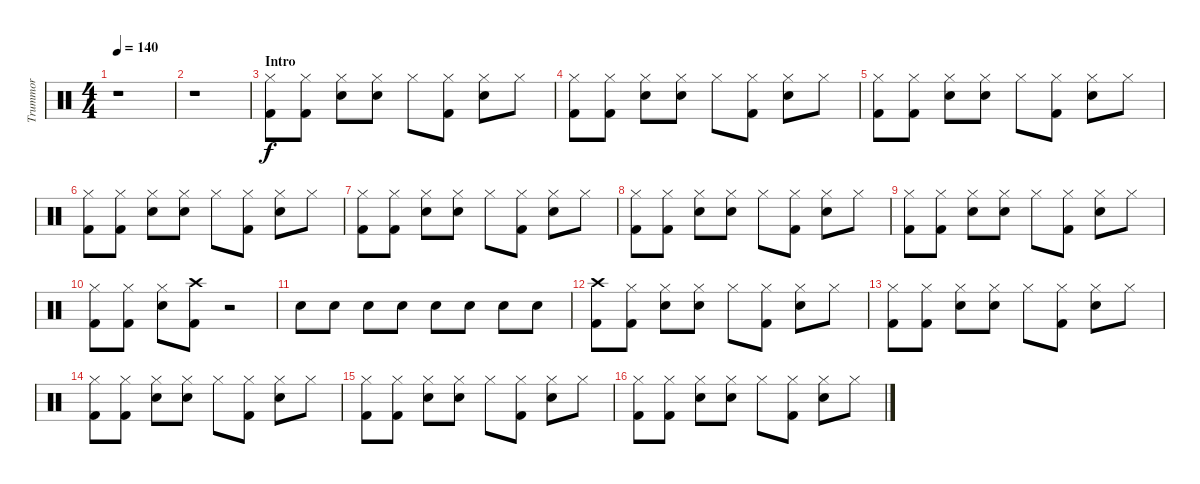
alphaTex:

\track ("Trummor" "Trummor") {instrument percussion}
\staff {score}
\articulation defaults
\ts (4 4)
\tempo 140
\clef neutral
\ks c
r.1{dy f} |
r.1 |
\section ("" "Intro")
("Hi-Hat (closed)" "Kick (hit) 2").8 ("Hi-Hat (closed)" "Kick (hit) 2").8 ("Hi-Hat (closed)" "Electric Snare (hit)").8 ("Hi-Hat (closed)" "Electric Snare (hit)").8 "Hi-Hat (closed)".8 ("Hi-Hat (closed)" "Kick (hit) 2").8 ("Hi-Hat (closed)" "Electric Snare (hit)").8 "Hi-Hat (closed)".8 |
("Hi-Hat (closed)" "Kick (hit) 2").8 ("Hi-Hat (closed)" "Kick (hit) 2").8 ("Hi-Hat (closed)" "Electric Snare (hit)").8 ("Hi-Hat (closed)" "Electric Snare (hit)").8 "Hi-Hat (closed)".8 ("Hi-Hat (closed)" "Kick (hit) 2").8 ("Hi-Hat (closed)" "Electric Snare (hit)").8 "Hi-Hat (closed)".8 |
("Hi-Hat (closed)" "Kick (hit) 2").8 ("Hi-Hat (closed)" "Kick (hit) 2").8 ("Hi-Hat (closed)" "Electric Snare (hit)").8 ("Hi-Hat (closed)" "Electric Snare (hit)").8 "Hi-Hat (closed)".8 ("Hi-Hat (closed)" "Kick (hit) 2").8 ("Hi-Hat (closed)" "Electric Snare (hit)").8 "Hi-Hat (closed)".8 |
("Hi-Hat (closed)" "Kick (hit) 2").8 ("Hi-Hat (closed)" "Kick (hit) 2").8 ("Hi-Hat (closed)" "Electric Snare (hit)").8 ("Hi-Hat (closed)" "Electric Snare (hit)").8 "Hi-Hat (closed)".8 ("Hi-Hat (closed)" "Kick (hit) 2").8 ("Hi-Hat (closed)" "Electric Snare (hit)").8 "Hi-Hat (closed)".8 |
("Hi-Hat (closed)" "Kick (hit) 2").8 ("Hi-Hat (closed)" "Kick (hit) 2").8 ("Hi-Hat (closed)" "Electric Snare (hit)").8 ("Hi-Hat (closed)" "Electric Snare (hit)").8 "Hi-Hat (closed)".8 ("Hi-Hat (closed)" "Kick (hit) 2").8 ("Hi-Hat (closed)" "Electric Snare (hit)").8 "Hi-Hat (closed)".8 |
("Hi-Hat (closed)" "Kick (hit) 2").8 ("Hi-Hat (closed)" "Kick (hit) 2").8 ("Hi-Hat (closed)" "Electric Snare (hit)").8 ("Hi-Hat (closed)" "Electric Snare (hit)").8 "Hi-Hat (closed)".8 ("Hi-Hat (closed)" "Kick (hit) 2").8 ("Hi-Hat (closed)" "Electric Snare (hit)").8 "Hi-Hat (closed)".8 |
("Hi-Hat (closed)" "Kick (hit) 2").8 ("Hi-Hat (closed)" "Kick (hit) 2").8 ("Hi-Hat (closed)" "Electric Snare (hit)").8 ("Hi-Hat (closed)" "Electric Snare (hit)").8 "Hi-Hat (closed)".8 ("Hi-Hat (closed)" "Kick (hit) 2").8 ("Hi-Hat (closed)" "Electric Snare (hit)").8 "Hi-Hat (closed)".8 |
("Hi-Hat (closed)" "Kick (hit) 2").8 ("Hi-Hat (closed)" "Kick (hit) 2").8 ("Hi-Hat (closed)" "Electric Snare (hit)").8 ("Crash high (hit)" "Kick (hit) 2").8 r.2 |
"Electric Snare (hit)".8 "Electric Snare (hit)".8 "Electric Snare (hit)".8 "Electric Snare (hit)".8 "Electric Snare (hit)".8 "Electric Snare (hit)".8 "Electric Snare (hit)".8 "Electric Snare (hit)".8 |
("Crash high (hit)" "Kick (hit) 2").8 ("Hi-Hat (closed)" "Kick (hit) 2").8 ("Hi-Hat (closed)" "Electric Snare (hit)").8 ("Hi-Hat (closed)" "Electric Snare (hit)").8 "Hi-Hat (closed)".8 ("Hi-Hat (closed)" "Kick (hit) 2").8 ("Hi-Hat (closed)" "Electric Snare (hit)").8 "Hi-Hat (closed)".8 |
("Hi-Hat (closed)" "Kick (hit) 2").8 ("Hi-Hat (closed)" "Kick (hit) 2").8 ("Hi-Hat (closed)" "Electric Snare (hit)").8 ("Hi-Hat (closed)" "Electric Snare (hit)").8 "Hi-Hat (closed)".8 ("Hi-Hat (closed)" "Kick (hit) 2").8 ("Hi-Hat (closed)" "Electric Snare (hit)").8 "Hi-Hat (closed)".8 |
("Hi-Hat (closed)" "Kick (hit) 2").8 ("Hi-Hat (closed)" "Kick (hit) 2").8 ("Hi-Hat (closed)" "Electric Snare (hit)").8 ("Hi-Hat (closed)" "Electric Snare (hit)").8 "Hi-Hat (closed)".8 ("Hi-Hat (closed)" "Kick (hit) 2").8 ("Hi-Hat (closed)" "Electric Snare (hit)").8 "Hi-Hat (closed)".8 |
("Hi-Hat (closed)" "Kick (hit) 2").8 ("Hi-Hat (closed)" "Kick (hit) 2").8 ("Hi-Hat (closed)" "Electric Snare (hit)").8 ("Hi-Hat (closed)" "Electric Snare (hit)").8 "Hi-Hat (closed)".8 ("Hi-Hat (closed)" "Kick (hit) 2").8 ("Hi-Hat (closed)" "Electric Snare (hit)").8 "Hi-Hat (closed)".8 |
("Hi-Hat (closed)" "Kick (hit) 2").8 ("Hi-Hat (closed)" "Kick (hit) 2").8 ("Hi-Hat (closed)" "Electric Snare (hit)").8 ("Hi-Hat (closed)" "Electric Snare (hit)").8 "Hi-Hat (closed)".8 ("Hi-Hat (closed)" "Kick (hit) 2").8 ("Hi-Hat (closed)" "Electric Snare (hit)").8 "Hi-Hat (closed)".8
